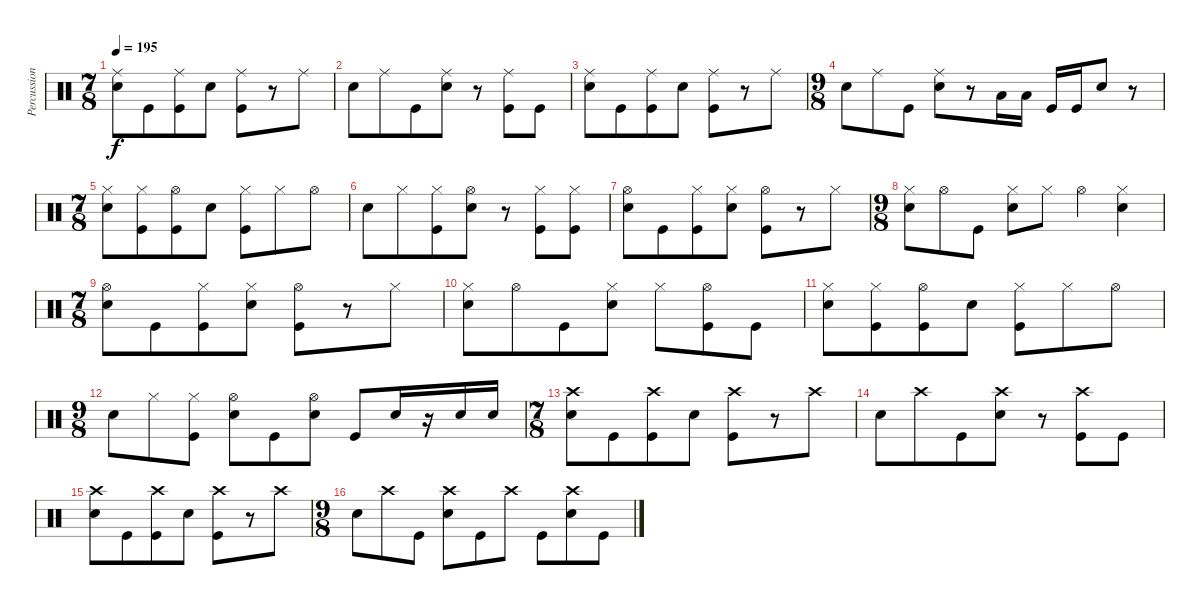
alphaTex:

\track ("Percussion" "Percussion") {instrument percussion}
\staff {score}
\articulation defaults
\ts (7 8)
\tempo 195
\clef neutral
\ks c
("Ride (middle)" "Electric Snare (hit)").8{dy f} "Kick (hit)".8 ("Ride (middle)" "Kick (hit)").8 "Electric Snare (hit)".8 ("Ride (middle)" "Kick (hit)").8 r.8 "Ride (middle)".8 |
"Electric Snare (hit)".8 "Ride (middle)".8 "Kick (hit)".8 ("Ride (middle)" "Electric Snare (hit)").8 r.8 ("Ride (middle)" "Kick (hit)").8 "Kick (hit)".8 |
("Ride (middle)" "Electric Snare (hit)").8 "Kick (hit)".8 ("Ride (middle)" "Kick (hit)").8 "Electric Snare (hit)".8 ("Ride (middle)" "Kick (hit)").8 r.8 "Ride (middle)".8 |
\ts (9 8)
"Electric Snare (hit)".8 "Ride (middle)".8 "Kick (hit)".8 ("Ride (middle)" "Electric Snare (hit)").8 r.8{beam merge} "Low Tom (hit)".16 "Low Tom (hit)".16 "Kick (hit)".16 "Kick (hit)".16{beam merge} "Electric Snare (hit)".8{beam merge} r.8 |
\ts (7 8)
("Hi-Hat (closed)" "Electric Snare (hit)").8 ("Hi-Hat (closed)" "Kick (hit)").8 ("Hi-Hat (open)" "Kick (hit)").8 "Electric Snare (hit)".8 ("Hi-Hat (closed)" "Kick (hit)").8 "Hi-Hat (closed)".8 "Hi-Hat (open)".8 |
"Electric Snare (hit)".8 "Hi-Hat (closed)".8 ("Hi-Hat (closed)" "Kick (hit)").8 ("Hi-Hat (open)" "Electric Snare (hit)").8 r.8 ("Hi-Hat (closed)" "Kick (hit)").8 ("Hi-Hat (closed)" "Kick (hit)").8 |
("Hi-Hat (open)" "Electric Snare (hit)").8 "Kick (hit)".8 ("Hi-Hat (closed)" "Kick (hit)").8 ("Hi-Hat (closed)" "Electric Snare (hit)").8 ("Hi-Hat (open)" "Kick (hit)").8 r.8 "Hi-Hat (closed)".8 |
\ts (9 8)
("Hi-Hat (closed)" "Electric Snare (hit)").8 "Hi-Hat (open)".8 "Kick (hit)".8 ("Hi-Hat (closed)" "Electric Snare (hit)").8 "Hi-Hat (closed)".8 "Hi-Hat (open)".4 ("Hi-Hat (closed)" "Electric Snare (hit)").4 |
\ts (7 8)
("Hi-Hat (open)" "Electric Snare (hit)").8 "Kick (hit)".8 ("Hi-Hat (closed)" "Kick (hit)").8 ("Hi-Hat (closed)" "Electric Snare (hit)").8 ("Hi-Hat (open)" "Kick (hit)").8 r.8 "Hi-Hat (closed)".8 |
("Hi-Hat (closed)" "Electric Snare (hit)").8 "Hi-Hat (open)".8 "Kick (hit)".8 ("Hi-Hat (closed)" "Electric Snare (hit)").8 "Hi-Hat (closed)".8 ("Hi-Hat (open)" "Kick (hit)").8 "Kick (hit)".8 |
("Hi-Hat (closed)" "Electric Snare (hit)").8 ("Hi-Hat (closed)" "Kick (hit)").8 ("Hi-Hat (open)" "Kick (hit)").8 "Electric Snare (hit)".8 ("Hi-Hat (closed)" "Kick (hit)").8 "Hi-Hat (closed)".8 "Hi-Hat (open)".8 |
\ts (9 8)
"Electric Snare (hit)".8 "Hi-Hat (closed)".8 ("Hi-Hat (closed)" "Kick (hit)").8 ("Hi-Hat (open)" "Electric Snare (hit)").8 "Kick (hit)".8 ("Hi-Hat (open)" "Electric Snare (hit)").8 "Kick (hit)".8 "Electric Snare (hit)".16 r.16 "Electric Snare (hit)".16 "Electric Snare (hit)".16 |
\ts (7 8)
("Crash high (hit)" "Electric Snare (hit)").8 "Kick (hit)".8 ("Crash high (hit)" "Kick (hit)").8 "Electric Snare (hit)".8 ("Crash high (hit)" "Kick (hit)").8 r.8 "Crash high (hit)".8 |
"Electric Snare (hit)".8 "Crash high (hit)".8 "Kick (hit)".8 ("Crash high (hit)" "Electric Snare (hit)").8 r.8 ("Crash high (hit)" "Kick (hit)").8 "Kick (hit)".8 |
("Crash high (hit)" "Electric Snare (hit)").8 "Kick (hit)".8 ("Crash high (hit)" "Kick (hit)").8 "Electric Snare (hit)".8 ("Crash high (hit)" "Kick (hit)").8 r.8 "Crash high (hit)".8 |
\ts (9 8)
"Electric Snare (hit)".8 "Crash high (hit)".8 "Kick (hit)".8 ("Crash high (hit)" "Electric Snare (hit)").8 "Kick (hit)".8{beam merge} "Crash high (hit)".8 "Kick (hit)".8 ("Crash high (hit)" "Electric Snare (hit)").8 "Kick (hit)".8
